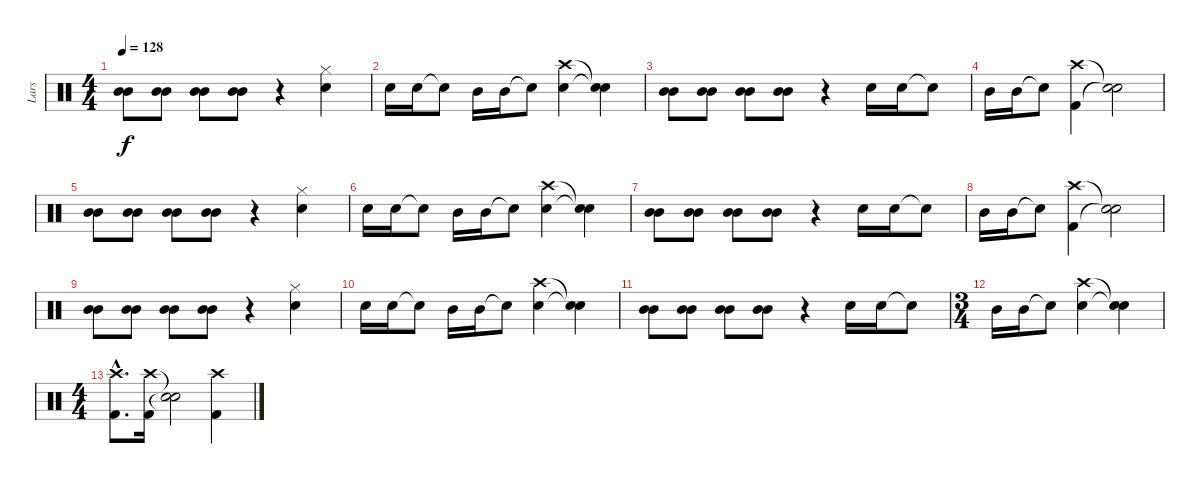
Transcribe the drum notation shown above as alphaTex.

\track ("Lars" "Lars") {instrument percussion}
\staff {score}
\articulation defaults
\ts (4 4)
\tempo 128
\clef neutral
\ks c
("Mid Tom (hit)" "Mid Tom (hit)").8{dy f} ("Mid Tom (hit)" "Mid Tom (hit)").8 ("Mid Tom (hit)" "Mid Tom (hit)").8 ("Mid Tom (hit)" "Mid Tom (hit)").8 r.4 ("Hi-Hat (closed)" "Electric Snare (hit)").4 |
"Electric Snare (hit)".16 "Electric Snare (hit)".16 "Snare (hit)"{t}.8 "Mid Tom (hit)".16 "Mid Tom (hit)".16 "Snare (hit)"{t}.8 ("Crash high (hit)" "Electric Snare (hit)").4 ("Snare (hit)"{t} "Snare (hit)"{t}).4 |
("Mid Tom (hit)" "Mid Tom (hit)").8 ("Mid Tom (hit)" "Mid Tom (hit)").8 ("Mid Tom (hit)" "Mid Tom (hit)").8 ("Mid Tom (hit)" "Mid Tom (hit)").8 r.4 "Electric Snare (hit)".16 "Electric Snare (hit)".16 "Snare (hit)"{t}.8 |
"Mid Tom (hit)".16 "Mid Tom (hit)".16 "Snare (hit)"{t}.8 ("Crash high (hit)" "Kick (hit) 2").4 ("Snare (hit)"{t} "Snare (hit)"{t}).2 |
("Mid Tom (hit)" "Mid Tom (hit)").8 ("Mid Tom (hit)" "Mid Tom (hit)").8 ("Mid Tom (hit)" "Mid Tom (hit)").8 ("Mid Tom (hit)" "Mid Tom (hit)").8 r.4 ("Hi-Hat (closed)" "Electric Snare (hit)").4 |
"Electric Snare (hit)".16 "Electric Snare (hit)".16 "Snare (hit)"{t}.8 "Mid Tom (hit)".16 "Mid Tom (hit)".16 "Snare (hit)"{t}.8 ("Crash high (hit)" "Snare (hit) 2").4 ("Snare (hit)"{t} "Snare (hit)"{t}).4 |
("Mid Tom (hit)" "Mid Tom (hit)").8 ("Mid Tom (hit)" "Mid Tom (hit)").8 ("Mid Tom (hit)" "Mid Tom (hit)").8 ("Mid Tom (hit)" "Mid Tom (hit)").8 r.4 "Electric Snare (hit)".16 "Electric Snare (hit)".16 "Snare (hit)"{t}.8 |
"Mid Tom (hit)".16 "Mid Tom (hit)".16 "Snare (hit)"{t}.8 ("Crash high (hit)" "Kick (hit) 2").4 ("Snare (hit)"{t} "Snare (hit)"{t}).2 |
("Mid Tom (hit)" "Mid Tom (hit)").8 ("Mid Tom (hit)" "Mid Tom (hit)").8 ("Mid Tom (hit)" "Mid Tom (hit)").8 ("Mid Tom (hit)" "Mid Tom (hit)").8 r.4 ("Hi-Hat (closed)" "Electric Snare (hit)").4 |
"Electric Snare (hit)".16 "Electric Snare (hit)".16 "Snare (hit)"{t}.8 "Mid Tom (hit)".16 "Mid Tom (hit)".16 "Snare (hit)"{t}.8 ("Crash high (hit)" "Electric Snare (hit)").4 ("Snare (hit)"{t} "Snare (hit)"{t}).4 |
("Mid Tom (hit)" "Mid Tom (hit)").8 ("Mid Tom (hit)" "Mid Tom (hit)").8 ("Mid Tom (hit)" "Mid Tom (hit)").8 ("Mid Tom (hit)" "Mid Tom (hit)").8 r.4 "Electric Snare (hit)".16 "Electric Snare (hit)".16 "Snare (hit)"{t}.8 |
\ts (3 4)
"Mid Tom (hit)".16 "Mid Tom (hit)".16 "Snare (hit)"{t}.8 ("Crash high (hit)" "Electric Snare (hit)").4 ("Snare (hit)"{t} "Snare (hit)"{t}).4 |
\ts (4 4)
("Crash high (hit)"{hac} "Kick (hit) 2"{hac}).8{d} ("Crash high (hit)" "Kick (hit) 2").16 ("Snare (hit)"{t} "Snare (hit)"{t}).2 ("Crash high (hit)" "Kick (hit) 2").4
